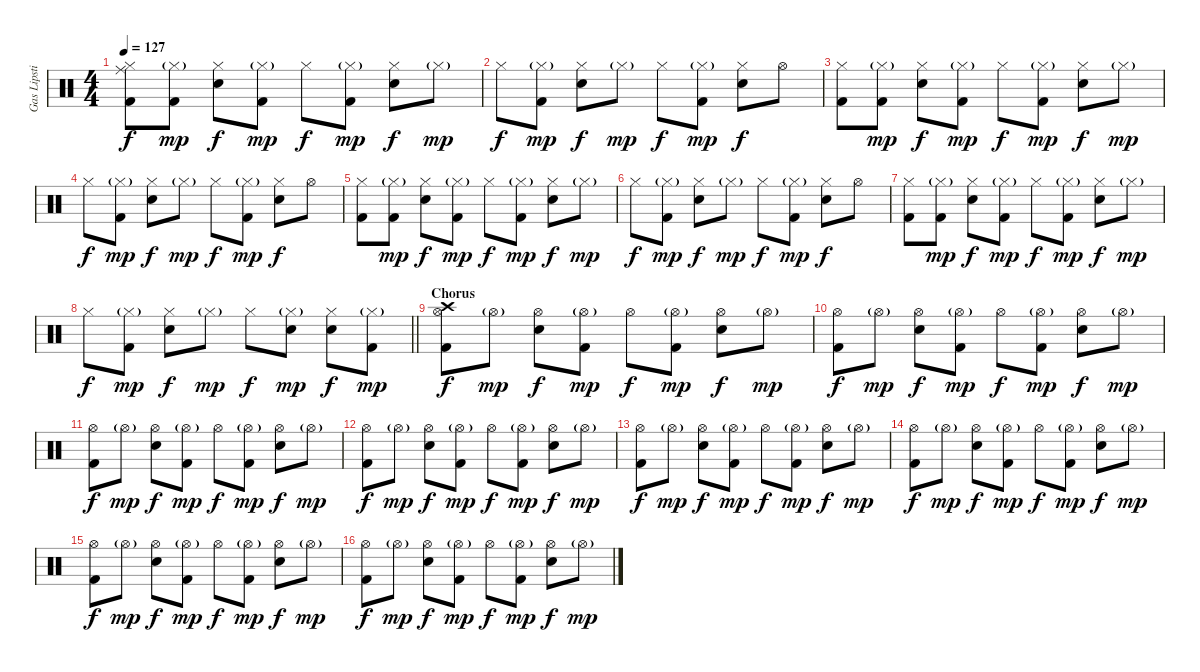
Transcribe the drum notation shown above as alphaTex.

\track ("Gas Lipstick (Drums)" "Gas Lipsti") {instrument percussion}
\staff {score}
\articulation defaults
\ts (4 4)
\tempo 127
\clef neutral
\ks c
("Ride (middle)" "Hi-Hat (closed)" "Kick (hit) 2").8{dy f} ("Hi-Hat (closed)"{g} "Kick (hit) 2").8{dy mp} ("Hi-Hat (closed)" "Snare (hit) 2").8{dy f} ("Hi-Hat (closed)"{g} "Kick (hit) 2").8{dy mp} "Hi-Hat (closed)".8{dy f} ("Hi-Hat (closed)"{g} "Kick (hit) 2").8{dy mp} ("Hi-Hat (closed)" "Snare (hit) 2").8{dy f} "Hi-Hat (closed)"{g}.8{dy mp} |
"Hi-Hat (closed)".8{dy f} ("Hi-Hat (closed)"{g} "Kick (hit) 2").8{dy mp} ("Hi-Hat (closed)" "Snare (hit) 2").8{dy f} "Hi-Hat (closed)"{g}.8{dy mp} "Hi-Hat (closed)".8{dy f} ("Hi-Hat (closed)"{g} "Kick (hit) 2").8{dy mp} ("Hi-Hat (closed)" "Snare (hit) 2").8{dy f} "Hi-Hat (open)".8 |
("Hi-Hat (closed)" "Kick (hit) 2").8 ("Hi-Hat (closed)"{g} "Kick (hit) 2").8{dy mp} ("Hi-Hat (closed)" "Snare (hit) 2").8{dy f} ("Hi-Hat (closed)"{g} "Kick (hit) 2").8{dy mp} "Hi-Hat (closed)".8{dy f} ("Hi-Hat (closed)"{g} "Kick (hit) 2").8{dy mp} ("Hi-Hat (closed)" "Snare (hit) 2").8{dy f} "Hi-Hat (closed)"{g}.8{dy mp} |
"Hi-Hat (closed)".8{dy f} ("Hi-Hat (closed)"{g} "Kick (hit) 2").8{dy mp} ("Hi-Hat (closed)" "Snare (hit) 2").8{dy f} "Hi-Hat (closed)"{g}.8{dy mp} "Hi-Hat (closed)".8{dy f} ("Hi-Hat (closed)"{g} "Kick (hit) 2").8{dy mp} ("Hi-Hat (closed)" "Snare (hit) 2").8{dy f} "Hi-Hat (open)".8 |
("Hi-Hat (closed)" "Kick (hit) 2").8 ("Hi-Hat (closed)"{g} "Kick (hit) 2").8{dy mp} ("Hi-Hat (closed)" "Snare (hit) 2").8{dy f} ("Hi-Hat (closed)"{g} "Kick (hit) 2").8{dy mp} "Hi-Hat (closed)".8{dy f} ("Hi-Hat (closed)"{g} "Kick (hit) 2").8{dy mp} ("Hi-Hat (closed)" "Snare (hit) 2").8{dy f} "Hi-Hat (closed)"{g}.8{dy mp} |
"Hi-Hat (closed)".8{dy f} ("Hi-Hat (closed)"{g} "Kick (hit) 2").8{dy mp} ("Hi-Hat (closed)" "Snare (hit) 2").8{dy f} "Hi-Hat (closed)"{g}.8{dy mp} "Hi-Hat (closed)".8{dy f} ("Hi-Hat (closed)"{g} "Kick (hit) 2").8{dy mp} ("Hi-Hat (closed)" "Snare (hit) 2").8{dy f} "Hi-Hat (open)".8 |
("Hi-Hat (closed)" "Kick (hit) 2").8 ("Hi-Hat (closed)"{g} "Kick (hit) 2").8{dy mp} ("Hi-Hat (closed)" "Snare (hit) 2").8{dy f} ("Hi-Hat (closed)"{g} "Kick (hit) 2").8{dy mp} "Hi-Hat (closed)".8{dy f} ("Hi-Hat (closed)"{g} "Kick (hit) 2").8{dy mp} ("Hi-Hat (closed)" "Snare (hit) 2").8{dy f} "Hi-Hat (closed)"{g}.8{dy mp} |
\barLineRight lightlight "Hi-Hat (closed)".8{dy f}
("Hi-Hat (closed)"{g} "Kick (hit) 2").8{dy mp} ("Hi-Hat (closed)" "Snare (hit) 2").8{dy f} "Hi-Hat (closed)"{g}.8{dy mp} "Hi-Hat (closed)".8{dy f} ("Hi-Hat (closed)"{g} "Snare (hit) 2").8{dy mp} ("Hi-Hat (closed)" "Snare (hit) 2").8{dy f} ("Hi-Hat (closed)"{g} "Kick (hit) 2").8{dy mp} |
\section ("" "Chorus")
("Crash high (hit)" "Hi-Hat (open)" "Kick (hit) 2").8{dy f} "Hi-Hat (open)"{g}.8{dy mp} ("Hi-Hat (open)" "Snare (hit) 2").8{dy f} ("Hi-Hat (open)"{g} "Kick (hit) 2").8{dy mp} "Hi-Hat (open)".8{dy f} ("Hi-Hat (open)"{g} "Kick (hit) 2").8{dy mp} ("Hi-Hat (open)" "Snare (hit) 2").8{dy f} "Hi-Hat (open)"{g}.8{dy mp} |
("Hi-Hat (open)" "Kick (hit) 2").8{dy f} "Hi-Hat (open)"{g}.8{dy mp} ("Hi-Hat (open)" "Snare (hit) 2").8{dy f} ("Hi-Hat (open)"{g} "Kick (hit) 2").8{dy mp} "Hi-Hat (open)".8{dy f} ("Hi-Hat (open)"{g} "Kick (hit) 2").8{dy mp} ("Hi-Hat (open)" "Snare (hit) 2").8{dy f} "Hi-Hat (open)"{g}.8{dy mp} |
("Hi-Hat (open)" "Kick (hit) 2").8{dy f} "Hi-Hat (open)"{g}.8{dy mp} ("Hi-Hat (open)" "Snare (hit) 2").8{dy f} ("Hi-Hat (open)"{g} "Kick (hit) 2").8{dy mp} "Hi-Hat (open)".8{dy f} ("Hi-Hat (open)"{g} "Kick (hit) 2").8{dy mp} ("Hi-Hat (open)" "Snare (hit) 2").8{dy f} "Hi-Hat (open)"{g}.8{dy mp} |
("Hi-Hat (open)" "Kick (hit) 2").8{dy f} "Hi-Hat (open)"{g}.8{dy mp} ("Hi-Hat (open)" "Snare (hit) 2").8{dy f} ("Hi-Hat (open)"{g} "Kick (hit) 2").8{dy mp} "Hi-Hat (open)".8{dy f} ("Hi-Hat (open)"{g} "Kick (hit) 2").8{dy mp} ("Hi-Hat (open)" "Snare (hit) 2").8{dy f} "Hi-Hat (open)"{g}.8{dy mp} |
("Hi-Hat (open)" "Kick (hit) 2").8{dy f} "Hi-Hat (open)"{g}.8{dy mp} ("Hi-Hat (open)" "Snare (hit) 2").8{dy f} ("Hi-Hat (open)"{g} "Kick (hit) 2").8{dy mp} "Hi-Hat (open)".8{dy f} ("Hi-Hat (open)"{g} "Kick (hit) 2").8{dy mp} ("Hi-Hat (open)" "Snare (hit) 2").8{dy f} "Hi-Hat (open)"{g}.8{dy mp} |
("Hi-Hat (open)" "Kick (hit) 2").8{dy f} "Hi-Hat (open)"{g}.8{dy mp} ("Hi-Hat (open)" "Snare (hit) 2").8{dy f} ("Hi-Hat (open)"{g} "Kick (hit) 2").8{dy mp} "Hi-Hat (open)".8{dy f} ("Hi-Hat (open)"{g} "Kick (hit) 2").8{dy mp} ("Hi-Hat (open)" "Snare (hit) 2").8{dy f} "Hi-Hat (open)"{g}.8{dy mp} |
("Hi-Hat (open)" "Kick (hit) 2").8{dy f} "Hi-Hat (open)"{g}.8{dy mp} ("Hi-Hat (open)" "Snare (hit) 2").8{dy f} ("Hi-Hat (open)"{g} "Kick (hit) 2").8{dy mp} "Hi-Hat (open)".8{dy f} ("Hi-Hat (open)"{g} "Kick (hit) 2").8{dy mp} ("Hi-Hat (open)" "Snare (hit) 2").8{dy f} "Hi-Hat (open)"{g}.8{dy mp} |
("Hi-Hat (open)" "Kick (hit) 2").8{dy f} "Hi-Hat (open)"{g}.8{dy mp} ("Hi-Hat (open)" "Snare (hit) 2").8{dy f} ("Hi-Hat (open)"{g} "Kick (hit) 2").8{dy mp} "Hi-Hat (open)".8{dy f} ("Hi-Hat (open)"{g} "Kick (hit) 2").8{dy mp} ("Hi-Hat (open)" "Snare (hit) 2").8{dy f} "Hi-Hat (open)"{g}.8{dy mp}
